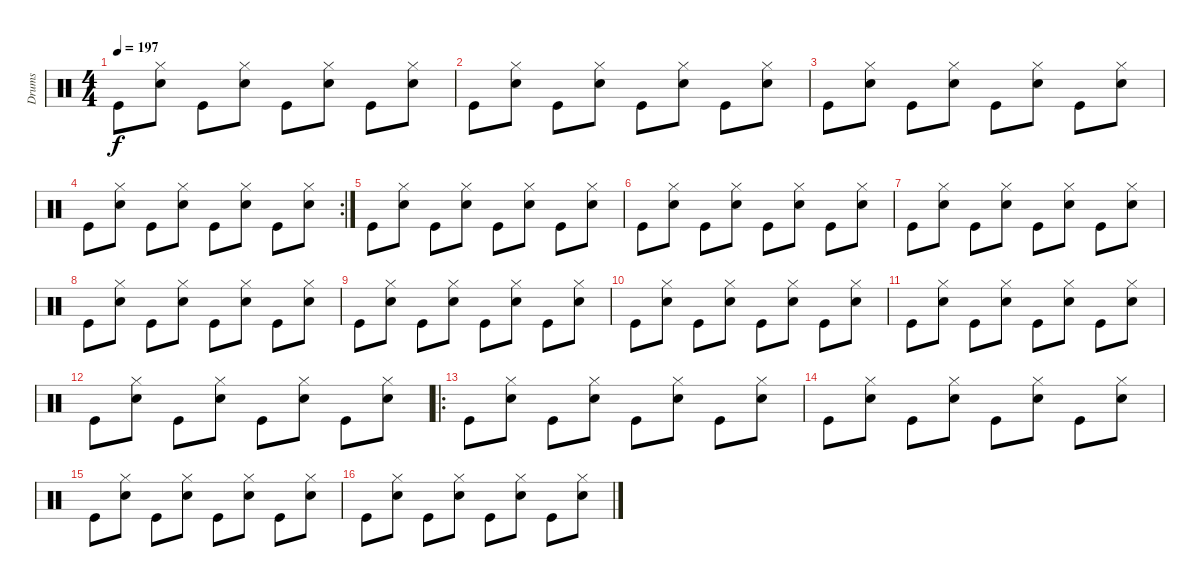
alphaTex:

\track ("Drums" "Drums") {instrument percussion}
\staff {score}
\articulation defaults
\ts (4 4)
\tempo 197
\clef neutral
\ks c "Kick (hit)".8{dy f}
("Hi-Hat (closed)" "Snare (hit) 2").8 "Kick (hit)".8 ("Hi-Hat (closed)" "Snare (hit) 2").8 "Kick (hit)".8 ("Hi-Hat (closed)" "Snare (hit) 2").8 "Kick (hit)".8 ("Hi-Hat (closed)" "Snare (hit) 2").8 |
"Kick (hit)".8 ("Hi-Hat (closed)" "Snare (hit) 2").8 "Kick (hit)".8 ("Hi-Hat (closed)" "Snare (hit) 2").8 "Kick (hit)".8 ("Hi-Hat (closed)" "Snare (hit) 2").8 "Kick (hit)".8 ("Hi-Hat (closed)" "Snare (hit) 2").8 |
"Kick (hit)".8 ("Hi-Hat (closed)" "Snare (hit) 2").8 "Kick (hit)".8 ("Hi-Hat (closed)" "Snare (hit) 2").8 "Kick (hit)".8 ("Hi-Hat (closed)" "Snare (hit) 2").8 "Kick (hit)".8 ("Hi-Hat (closed)" "Snare (hit) 2").8 |
\rc 2 "Kick (hit)".8
("Hi-Hat (closed)" "Snare (hit) 2").8 "Kick (hit)".8 ("Hi-Hat (closed)" "Snare (hit) 2").8 "Kick (hit)".8 ("Hi-Hat (closed)" "Snare (hit) 2").8 "Kick (hit)".8 ("Hi-Hat (closed)" "Snare (hit) 2").8 |
"Kick (hit)".8 ("Hi-Hat (closed)" "Snare (hit) 2").8 "Kick (hit)".8 ("Hi-Hat (closed)" "Snare (hit) 2").8 "Kick (hit)".8 ("Hi-Hat (closed)" "Snare (hit) 2").8 "Kick (hit)".8 ("Hi-Hat (closed)" "Snare (hit) 2").8 |
"Kick (hit)".8 ("Hi-Hat (closed)" "Snare (hit) 2").8 "Kick (hit)".8 ("Hi-Hat (closed)" "Snare (hit) 2").8 "Kick (hit)".8 ("Hi-Hat (closed)" "Snare (hit) 2").8 "Kick (hit)".8 ("Hi-Hat (closed)" "Snare (hit) 2").8 |
"Kick (hit)".8 ("Hi-Hat (closed)" "Snare (hit) 2").8 "Kick (hit)".8 ("Hi-Hat (closed)" "Snare (hit) 2").8 "Kick (hit)".8 ("Hi-Hat (closed)" "Snare (hit) 2").8 "Kick (hit)".8 ("Hi-Hat (closed)" "Snare (hit) 2").8 |
"Kick (hit)".8 ("Hi-Hat (closed)" "Snare (hit) 2").8 "Kick (hit)".8 ("Hi-Hat (closed)" "Snare (hit) 2").8 "Kick (hit)".8 ("Hi-Hat (closed)" "Snare (hit) 2").8 "Kick (hit)".8 ("Hi-Hat (closed)" "Snare (hit) 2").8 |
"Kick (hit)".8 ("Hi-Hat (closed)" "Snare (hit) 2").8 "Kick (hit)".8 ("Hi-Hat (closed)" "Snare (hit) 2").8 "Kick (hit)".8 ("Hi-Hat (closed)" "Snare (hit) 2").8 "Kick (hit)".8 ("Hi-Hat (closed)" "Snare (hit) 2").8 |
"Kick (hit)".8 ("Hi-Hat (closed)" "Snare (hit) 2").8 "Kick (hit)".8 ("Hi-Hat (closed)" "Snare (hit) 2").8 "Kick (hit)".8 ("Hi-Hat (closed)" "Snare (hit) 2").8 "Kick (hit)".8 ("Hi-Hat (closed)" "Snare (hit) 2").8 |
"Kick (hit)".8 ("Hi-Hat (closed)" "Snare (hit) 2").8 "Kick (hit)".8 ("Hi-Hat (closed)" "Snare (hit) 2").8 "Kick (hit)".8 ("Hi-Hat (closed)" "Snare (hit) 2").8 "Kick (hit)".8 ("Hi-Hat (closed)" "Snare (hit) 2").8 |
"Kick (hit)".8 ("Hi-Hat (closed)" "Snare (hit) 2").8 "Kick (hit)".8 ("Hi-Hat (closed)" "Snare (hit) 2").8 "Kick (hit)".8 ("Hi-Hat (closed)" "Snare (hit) 2").8 "Kick (hit)".8 ("Hi-Hat (closed)" "Snare (hit) 2").8 |
\ro "Kick (hit)".8
("Hi-Hat (closed)" "Snare (hit) 2").8 "Kick (hit)".8 ("Hi-Hat (closed)" "Snare (hit) 2").8 "Kick (hit)".8 ("Hi-Hat (closed)" "Snare (hit) 2").8 "Kick (hit)".8 ("Hi-Hat (closed)" "Snare (hit) 2").8 |
"Kick (hit)".8 ("Hi-Hat (closed)" "Snare (hit) 2").8 "Kick (hit)".8 ("Hi-Hat (closed)" "Snare (hit) 2").8 "Kick (hit)".8 ("Hi-Hat (closed)" "Snare (hit) 2").8 "Kick (hit)".8 ("Hi-Hat (closed)" "Snare (hit) 2").8 |
"Kick (hit)".8 ("Hi-Hat (closed)" "Snare (hit) 2").8 "Kick (hit)".8 ("Hi-Hat (closed)" "Snare (hit) 2").8 "Kick (hit)".8 ("Hi-Hat (closed)" "Snare (hit) 2").8 "Kick (hit)".8 ("Hi-Hat (closed)" "Snare (hit) 2").8 |
"Kick (hit)".8 ("Hi-Hat (closed)" "Snare (hit) 2").8 "Kick (hit)".8 ("Hi-Hat (closed)" "Snare (hit) 2").8 "Kick (hit)".8 ("Hi-Hat (closed)" "Snare (hit) 2").8 "Kick (hit)".8 ("Hi-Hat (closed)" "Snare (hit) 2").8
